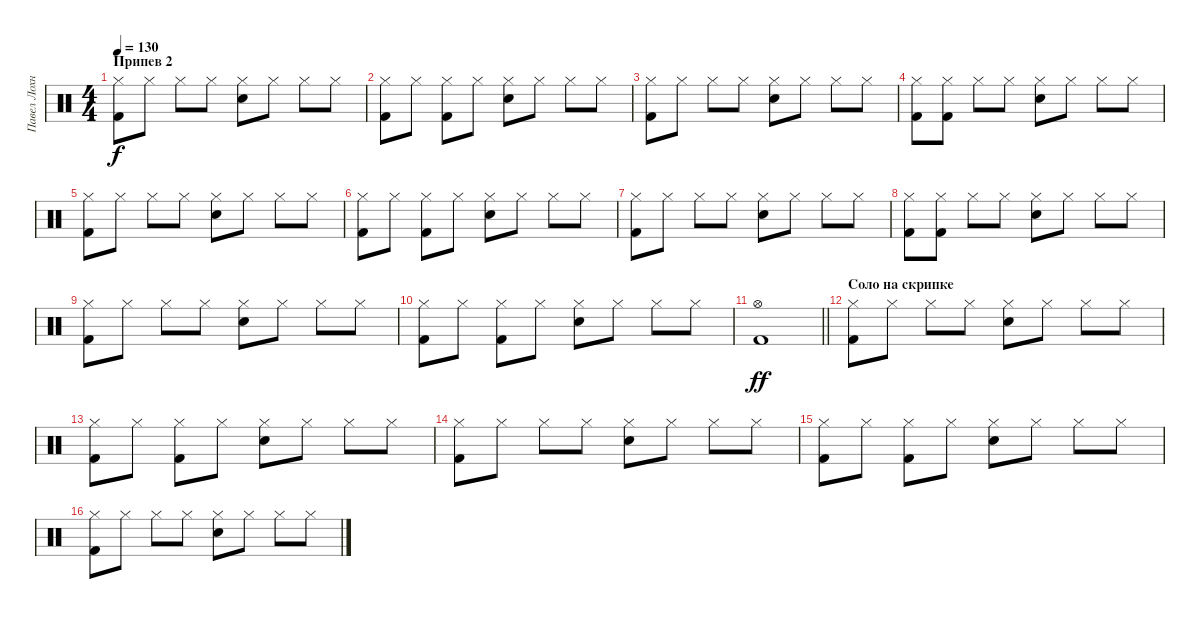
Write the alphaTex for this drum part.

\track ("Павел Лохнин" "Павел Лохн") {instrument percussion}
\staff {score}
\articulation defaults
\ts (4 4)
\section ("" "Припев 2")
\tempo 130
\clef neutral
\ks c
("Hi-Hat (closed)" "Kick (hit) 2").8{dy f} "Hi-Hat (closed)".8 "Hi-Hat (closed)".8 "Hi-Hat (closed)".8 ("Hi-Hat (closed)" "Electric Snare (hit)").8 "Hi-Hat (closed)".8 "Hi-Hat (closed)".8 "Hi-Hat (closed)".8 |
("Hi-Hat (closed)" "Kick (hit) 2").8 "Hi-Hat (closed)".8 ("Hi-Hat (closed)" "Kick (hit) 2").8 "Hi-Hat (closed)".8 ("Hi-Hat (closed)" "Electric Snare (hit)").8 "Hi-Hat (closed)".8 "Hi-Hat (closed)".8 "Hi-Hat (closed)".8 |
("Hi-Hat (closed)" "Kick (hit) 2").8 "Hi-Hat (closed)".8 "Hi-Hat (closed)".8 "Hi-Hat (closed)".8 ("Hi-Hat (closed)" "Electric Snare (hit)").8 "Hi-Hat (closed)".8 "Hi-Hat (closed)".8 "Hi-Hat (closed)".8 |
("Hi-Hat (closed)" "Kick (hit) 2").8 ("Hi-Hat (closed)" "Kick (hit) 2").8 "Hi-Hat (closed)".8 "Hi-Hat (closed)".8 ("Hi-Hat (closed)" "Electric Snare (hit)").8 "Hi-Hat (closed)".8 "Hi-Hat (closed)".8 "Hi-Hat (closed)".8 |
("Hi-Hat (closed)" "Kick (hit) 2").8 "Hi-Hat (closed)".8 "Hi-Hat (closed)".8 "Hi-Hat (closed)".8 ("Hi-Hat (closed)" "Electric Snare (hit)").8 "Hi-Hat (closed)".8 "Hi-Hat (closed)".8 "Hi-Hat (closed)".8 |
("Hi-Hat (closed)" "Kick (hit) 2").8 "Hi-Hat (closed)".8 ("Hi-Hat (closed)" "Kick (hit) 2").8 "Hi-Hat (closed)".8 ("Hi-Hat (closed)" "Electric Snare (hit)").8 "Hi-Hat (closed)".8 "Hi-Hat (closed)".8 "Hi-Hat (closed)".8 |
("Hi-Hat (closed)" "Kick (hit) 2").8 "Hi-Hat (closed)".8 "Hi-Hat (closed)".8 "Hi-Hat (closed)".8 ("Hi-Hat (closed)" "Electric Snare (hit)").8 "Hi-Hat (closed)".8 "Hi-Hat (closed)".8 "Hi-Hat (closed)".8 |
("Hi-Hat (closed)" "Kick (hit) 2").8 ("Hi-Hat (closed)" "Kick (hit) 2").8 "Hi-Hat (closed)".8 "Hi-Hat (closed)".8 ("Hi-Hat (closed)" "Electric Snare (hit)").8 "Hi-Hat (closed)".8 "Hi-Hat (closed)".8 "Hi-Hat (closed)".8 |
("Hi-Hat (closed)" "Kick (hit) 2").8 "Hi-Hat (closed)".8 "Hi-Hat (closed)".8 "Hi-Hat (closed)".8 ("Hi-Hat (closed)" "Electric Snare (hit)").8 "Hi-Hat (closed)".8 "Hi-Hat (closed)".8 "Hi-Hat (closed)".8 |
("Hi-Hat (closed)" "Kick (hit) 2").8 "Hi-Hat (closed)".8 ("Hi-Hat (closed)" "Kick (hit) 2").8 "Hi-Hat (closed)".8 ("Hi-Hat (closed)" "Electric Snare (hit)").8 "Hi-Hat (closed)".8 "Hi-Hat (closed)".8 "Hi-Hat (closed)".8 |
\barLineRight lightlight
("Hi-Hat (open)" "Kick (hit) 2").1{dy ff} |
\section ("" "Соло на скрипке")
("Hi-Hat (closed)" "Kick (hit) 2").8 "Hi-Hat (closed)".8 "Hi-Hat (closed)".8 "Hi-Hat (closed)".8 ("Hi-Hat (closed)" "Electric Snare (hit)").8 "Hi-Hat (closed)".8 "Hi-Hat (closed)".8 "Hi-Hat (closed)".8 |
("Hi-Hat (closed)" "Kick (hit) 2").8 "Hi-Hat (closed)".8 ("Hi-Hat (closed)" "Kick (hit) 2").8 "Hi-Hat (closed)".8 ("Hi-Hat (closed)" "Electric Snare (hit)").8 "Hi-Hat (closed)".8 "Hi-Hat (closed)".8 "Hi-Hat (closed)".8 |
("Hi-Hat (closed)" "Kick (hit) 2").8 "Hi-Hat (closed)".8 "Hi-Hat (closed)".8 "Hi-Hat (closed)".8 ("Hi-Hat (closed)" "Electric Snare (hit)").8 "Hi-Hat (closed)".8 "Hi-Hat (closed)".8 "Hi-Hat (closed)".8 |
("Hi-Hat (closed)" "Kick (hit) 2").8 "Hi-Hat (closed)".8 ("Hi-Hat (closed)" "Kick (hit) 2").8 "Hi-Hat (closed)".8 ("Hi-Hat (closed)" "Electric Snare (hit)").8 "Hi-Hat (closed)".8 "Hi-Hat (closed)".8 "Hi-Hat (closed)".8 |
("Hi-Hat (closed)" "Kick (hit) 2").8 "Hi-Hat (closed)".8 "Hi-Hat (closed)".8 "Hi-Hat (closed)".8 ("Hi-Hat (closed)" "Electric Snare (hit)").8 "Hi-Hat (closed)".8 "Hi-Hat (closed)".8 "Hi-Hat (closed)".8
